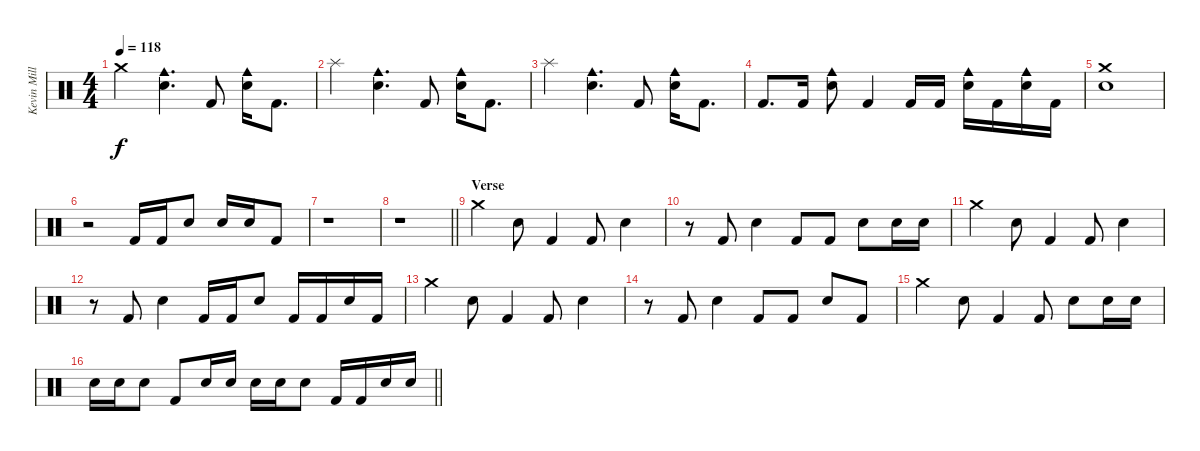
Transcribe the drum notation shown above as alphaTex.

\track ("Kevin Miller (Drums)" "Kevin Mill") {instrument percussion}
\staff {score}
\articulation defaults
\ts (4 4)
\tempo 118
\clef neutral
\ks c "Crash medium (hit)".4{dy f}
("Electric Snare (hit)" "Cowbell medium (hit)").4{d} "Kick (hit) 2".8 ("Electric Snare (hit)" "Cowbell medium (hit)").16 "Kick (hit) 2".8{d} |
"Splash (hit)".4 ("Electric Snare (hit)" "Cowbell medium (hit)").4{d} "Kick (hit) 2".8 ("Electric Snare (hit)" "Cowbell medium (hit)").16 "Kick (hit) 2".8{d} |
"Splash (hit)".4 ("Electric Snare (hit)" "Cowbell medium (hit)").4{d} "Kick (hit) 2".8 ("Electric Snare (hit)" "Cowbell medium (hit)").16 "Kick (hit) 2".8{d} |
"Kick (hit) 2".8{d} "Kick (hit) 2".16 ("Electric Snare (hit)" "Cowbell medium (hit)").8 "Kick (hit) 2".4 "Kick (hit) 2".16 "Kick (hit) 2".16 ("Electric Snare (hit)" "Cowbell medium (hit)").16 "Kick (hit) 2".16 ("Electric Snare (hit)" "Cowbell medium (hit)").16 "Kick (hit) 2".16 |
("Crash medium (hit)" "Electric Snare (hit)").1 |
r.2 "Kick (hit) 2".16 "Kick (hit) 2".16 "Electric Snare (hit)".8 "Electric Snare (hit)".16 "Electric Snare (hit)".16 "Kick (hit) 2".8 |
r.1 |
\barLineRight lightlight
r.1 |
\section ("" "Verse")
"Crash medium (hit)".4 "Electric Snare (hit)".8 "Kick (hit) 2".4 "Kick (hit) 2".8 "Electric Snare (hit)".4 |
r.8 "Kick (hit) 2".8 "Electric Snare (hit)".4 "Kick (hit) 2".8 "Kick (hit) 2".8 "Electric Snare (hit)".8 "Electric Snare (hit)".16 "Electric Snare (hit)".16 |
"Crash medium (hit)".4 "Electric Snare (hit)".8 "Kick (hit) 2".4 "Kick (hit) 2".8 "Electric Snare (hit)".4 |
r.8 "Kick (hit) 2".8 "Electric Snare (hit)".4 "Kick (hit) 2".16 "Kick (hit) 2".16 "Electric Snare (hit)".8 "Kick (hit) 2".16 "Kick (hit) 2".16 "Electric Snare (hit)".16 "Kick (hit) 2".16 |
"Crash medium (hit)".4 "Electric Snare (hit)".8 "Kick (hit) 2".4 "Kick (hit) 2".8 "Electric Snare (hit)".4 |
r.8 "Kick (hit) 2".8 "Electric Snare (hit)".4 "Kick (hit) 2".8 "Kick (hit) 2".8 "Electric Snare (hit)".8 "Kick (hit) 2".8 |
"Crash medium (hit)".4 "Electric Snare (hit)".8 "Kick (hit) 2".4 "Kick (hit) 2".8 "Electric Snare (hit)".8 "Electric Snare (hit)".16 "Electric Snare (hit)".16 |
\barLineRight lightlight "Electric Snare (hit)".16 "Electric Snare (hit)".16 "Electric Snare (hit)".8 "Kick (hit) 2".8 "Electric Snare (hit)".16 "Electric Snare (hit)".16 "Electric Snare (hit)".16 "Electric Snare (hit)".16 "Electric Snare (hit)".8 "Kick (hit) 2".16 "Kick (hit) 2".16 "Electric Snare (hit)".16 "Electric Snare (hit)".16
